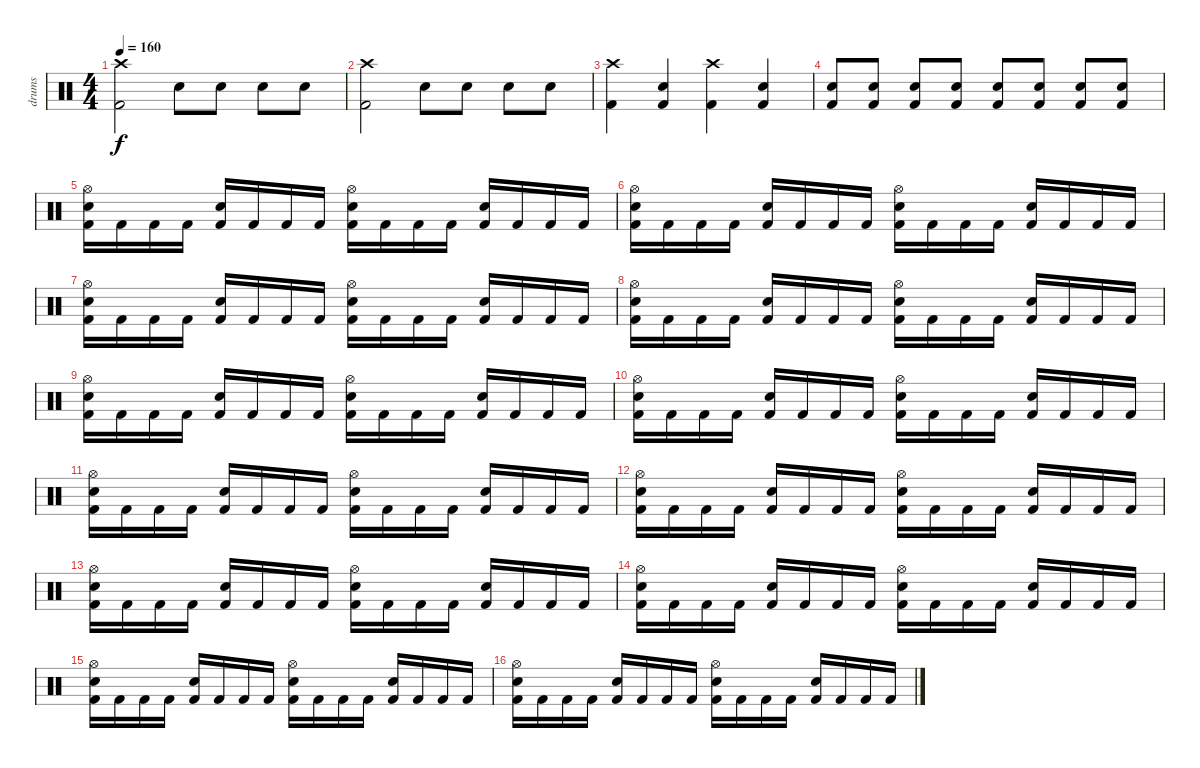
\track ("drums" "drums") {instrument percussion}
\staff {score}
\articulation defaults
\ts (4 4)
\tempo 160
\clef neutral
\ks c
("Crash high (hit)" "Kick (hit) 2").2{dy f} "Electric Snare (hit)".8 "Electric Snare (hit)".8 "Snare (hit) 2".8 "Snare (hit) 2".8 |
("Crash high (hit)" "Kick (hit) 2").2 "Electric Snare (hit)".8 "Electric Snare (hit)".8 "Snare (hit) 2".8 "Snare (hit) 2".8 |
("Crash high (hit)" "Kick (hit) 2").4 ("Snare (hit) 2" "Kick (hit) 2").4 ("Crash high (hit)" "Kick (hit) 2").4 ("Snare (hit) 2" "Kick (hit) 2").4 |
("Snare (hit) 2" "Kick (hit) 2").8 ("Snare (hit) 2" "Kick (hit) 2").8 ("Snare (hit) 2" "Kick (hit) 2").8 ("Snare (hit) 2" "Kick (hit) 2").8 ("Snare (hit) 2" "Kick (hit) 2").8 ("Snare (hit) 2" "Kick (hit) 2").8 ("Snare (hit) 2" "Kick (hit) 2").8 ("Snare (hit) 2" "Kick (hit) 2").8 |
("Hi-Hat (open)" "Electric Snare (hit)" "Kick (hit) 2").16 "Kick (hit) 2".16 "Kick (hit) 2".16 "Kick (hit) 2".16 ("Electric Snare (hit)" "Kick (hit) 2").16 "Kick (hit) 2".16 "Kick (hit) 2".16 "Kick (hit) 2".16 ("Hi-Hat (open)" "Electric Snare (hit)" "Kick (hit) 2").16 "Kick (hit) 2".16 "Kick (hit) 2".16 "Kick (hit) 2".16 ("Electric Snare (hit)" "Kick (hit) 2").16 "Kick (hit) 2".16 "Kick (hit) 2".16 "Kick (hit) 2".16 |
("Hi-Hat (open)" "Electric Snare (hit)" "Kick (hit) 2").16 "Kick (hit) 2".16 "Kick (hit) 2".16 "Kick (hit) 2".16 ("Electric Snare (hit)" "Kick (hit) 2").16 "Kick (hit) 2".16 "Kick (hit) 2".16 "Kick (hit) 2".16 ("Hi-Hat (open)" "Electric Snare (hit)" "Kick (hit) 2").16 "Kick (hit) 2".16 "Kick (hit) 2".16 "Kick (hit) 2".16 ("Electric Snare (hit)" "Kick (hit) 2").16 "Kick (hit) 2".16 "Kick (hit) 2".16 "Kick (hit) 2".16 |
("Hi-Hat (open)" "Electric Snare (hit)" "Kick (hit) 2").16 "Kick (hit) 2".16 "Kick (hit) 2".16 "Kick (hit) 2".16 ("Electric Snare (hit)" "Kick (hit) 2").16 "Kick (hit) 2".16 "Kick (hit) 2".16 "Kick (hit) 2".16 ("Hi-Hat (open)" "Electric Snare (hit)" "Kick (hit) 2").16 "Kick (hit) 2".16 "Kick (hit) 2".16 "Kick (hit) 2".16 ("Electric Snare (hit)" "Kick (hit) 2").16 "Kick (hit) 2".16 "Kick (hit) 2".16 "Kick (hit) 2".16 |
("Hi-Hat (open)" "Electric Snare (hit)" "Kick (hit) 2").16 "Kick (hit) 2".16 "Kick (hit) 2".16 "Kick (hit) 2".16 ("Electric Snare (hit)" "Kick (hit) 2").16 "Kick (hit) 2".16 "Kick (hit) 2".16 "Kick (hit) 2".16 ("Hi-Hat (open)" "Electric Snare (hit)" "Kick (hit) 2").16 "Kick (hit) 2".16 "Kick (hit) 2".16 "Kick (hit) 2".16 ("Electric Snare (hit)" "Kick (hit) 2").16 "Kick (hit) 2".16 "Kick (hit) 2".16 "Kick (hit) 2".16 |
("Hi-Hat (open)" "Electric Snare (hit)" "Kick (hit) 2").16 "Kick (hit) 2".16 "Kick (hit) 2".16 "Kick (hit) 2".16 ("Electric Snare (hit)" "Kick (hit) 2").16 "Kick (hit) 2".16 "Kick (hit) 2".16 "Kick (hit) 2".16 ("Hi-Hat (open)" "Electric Snare (hit)" "Kick (hit) 2").16 "Kick (hit) 2".16 "Kick (hit) 2".16 "Kick (hit) 2".16 ("Electric Snare (hit)" "Kick (hit) 2").16 "Kick (hit) 2".16 "Kick (hit) 2".16 "Kick (hit) 2".16 |
("Hi-Hat (open)" "Electric Snare (hit)" "Kick (hit) 2").16 "Kick (hit) 2".16 "Kick (hit) 2".16 "Kick (hit) 2".16 ("Electric Snare (hit)" "Kick (hit) 2").16 "Kick (hit) 2".16 "Kick (hit) 2".16 "Kick (hit) 2".16 ("Hi-Hat (open)" "Electric Snare (hit)" "Kick (hit) 2").16 "Kick (hit) 2".16 "Kick (hit) 2".16 "Kick (hit) 2".16 ("Electric Snare (hit)" "Kick (hit) 2").16 "Kick (hit) 2".16 "Kick (hit) 2".16 "Kick (hit) 2".16 |
("Hi-Hat (open)" "Electric Snare (hit)" "Kick (hit) 2").16 "Kick (hit) 2".16 "Kick (hit) 2".16 "Kick (hit) 2".16 ("Electric Snare (hit)" "Kick (hit) 2").16 "Kick (hit) 2".16 "Kick (hit) 2".16 "Kick (hit) 2".16 ("Hi-Hat (open)" "Electric Snare (hit)" "Kick (hit) 2").16 "Kick (hit) 2".16 "Kick (hit) 2".16 "Kick (hit) 2".16 ("Electric Snare (hit)" "Kick (hit) 2").16 "Kick (hit) 2".16 "Kick (hit) 2".16 "Kick (hit) 2".16 |
("Hi-Hat (open)" "Electric Snare (hit)" "Kick (hit) 2").16 "Kick (hit) 2".16 "Kick (hit) 2".16 "Kick (hit) 2".16 ("Electric Snare (hit)" "Kick (hit) 2").16 "Kick (hit) 2".16 "Kick (hit) 2".16 "Kick (hit) 2".16 ("Hi-Hat (open)" "Electric Snare (hit)" "Kick (hit) 2").16 "Kick (hit) 2".16 "Kick (hit) 2".16 "Kick (hit) 2".16 ("Electric Snare (hit)" "Kick (hit) 2").16 "Kick (hit) 2".16 "Kick (hit) 2".16 "Kick (hit) 2".16 |
("Hi-Hat (open)" "Electric Snare (hit)" "Kick (hit) 2").16 "Kick (hit) 2".16 "Kick (hit) 2".16 "Kick (hit) 2".16 ("Electric Snare (hit)" "Kick (hit) 2").16 "Kick (hit) 2".16 "Kick (hit) 2".16 "Kick (hit) 2".16 ("Hi-Hat (open)" "Electric Snare (hit)" "Kick (hit) 2").16 "Kick (hit) 2".16 "Kick (hit) 2".16 "Kick (hit) 2".16 ("Electric Snare (hit)" "Kick (hit) 2").16 "Kick (hit) 2".16 "Kick (hit) 2".16 "Kick (hit) 2".16 |
("Hi-Hat (open)" "Electric Snare (hit)" "Kick (hit) 2").16 "Kick (hit) 2".16 "Kick (hit) 2".16 "Kick (hit) 2".16 ("Electric Snare (hit)" "Kick (hit) 2").16 "Kick (hit) 2".16 "Kick (hit) 2".16 "Kick (hit) 2".16 ("Hi-Hat (open)" "Electric Snare (hit)" "Kick (hit) 2").16 "Kick (hit) 2".16 "Kick (hit) 2".16 "Kick (hit) 2".16 ("Electric Snare (hit)" "Kick (hit) 2").16 "Kick (hit) 2".16 "Kick (hit) 2".16 "Kick (hit) 2".16 |
("Hi-Hat (open)" "Electric Snare (hit)" "Kick (hit) 2").16 "Kick (hit) 2".16 "Kick (hit) 2".16 "Kick (hit) 2".16 ("Electric Snare (hit)" "Kick (hit) 2").16 "Kick (hit) 2".16 "Kick (hit) 2".16 "Kick (hit) 2".16 ("Hi-Hat (open)" "Electric Snare (hit)" "Kick (hit) 2").16 "Kick (hit) 2".16 "Kick (hit) 2".16 "Kick (hit) 2".16 ("Electric Snare (hit)" "Kick (hit) 2").16 "Kick (hit) 2".16 "Kick (hit) 2".16 "Kick (hit) 2".16 |
("Hi-Hat (open)" "Electric Snare (hit)" "Kick (hit) 2").16 "Kick (hit) 2".16 "Kick (hit) 2".16 "Kick (hit) 2".16 ("Electric Snare (hit)" "Kick (hit) 2").16 "Kick (hit) 2".16 "Kick (hit) 2".16 "Kick (hit) 2".16 ("Hi-Hat (open)" "Electric Snare (hit)" "Kick (hit) 2").16 "Kick (hit) 2".16 "Kick (hit) 2".16 "Kick (hit) 2".16 ("Electric Snare (hit)" "Kick (hit) 2").16 "Kick (hit) 2".16 "Kick (hit) 2".16 "Kick (hit) 2".16
